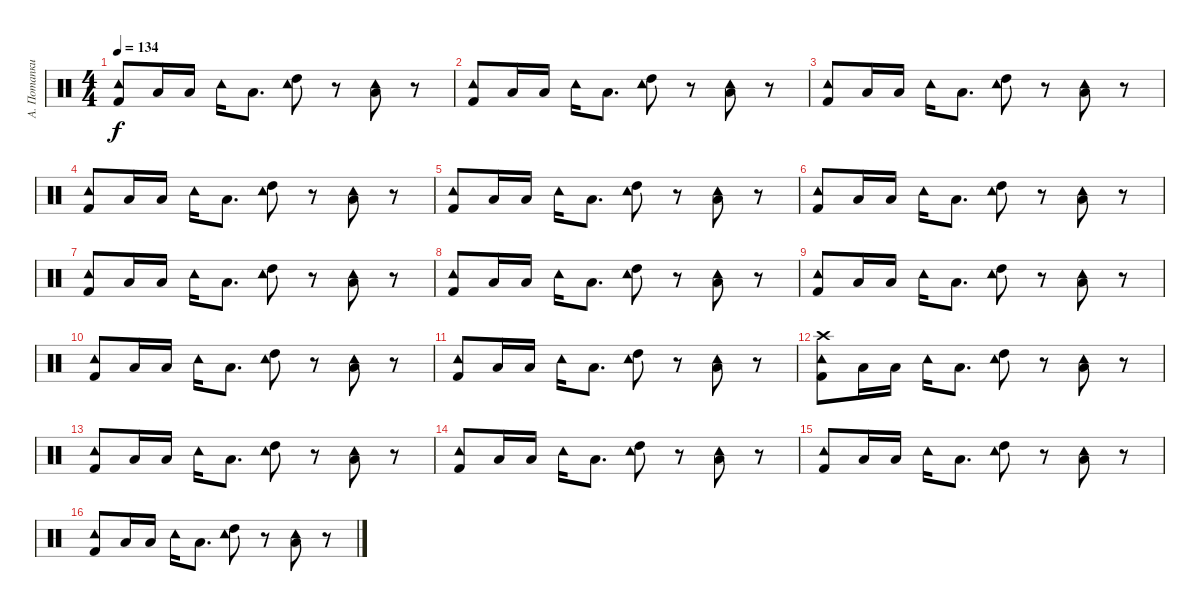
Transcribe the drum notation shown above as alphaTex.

\track ("А. Потапкин" "А. Потапки") {instrument percussion}
\staff {score}
\articulation defaults
\ts (4 4)
\tempo 134
\clef neutral
\ks c
("Tambourine (hit)" "Kick (hit) 2").8{dy f} "Low Tom (hit)".16 "Low Tom (hit)".16 "Tambourine (hit)".16 "Low Tom (hit)".8{d} ("Tambourine (hit)" "High Tom (hit)").8 r.8 ("Tambourine (hit)" "Low Tom (hit)").8 r.8 |
("Tambourine (hit)" "Kick (hit) 2").8 "Low Tom (hit)".16 "Low Tom (hit)".16 "Tambourine (hit)".16 "Low Tom (hit)".8{d} ("Tambourine (hit)" "High Tom (hit)").8 r.8 ("Tambourine (hit)" "Low Tom (hit)").8 r.8 |
("Tambourine (hit)" "Kick (hit) 2").8 "Low Tom (hit)".16 "Low Tom (hit)".16 "Tambourine (hit)".16 "Low Tom (hit)".8{d} ("Tambourine (hit)" "High Tom (hit)").8 r.8 ("Tambourine (hit)" "Low Tom (hit)").8 r.8 |
("Tambourine (hit)" "Kick (hit) 2").8 "Low Tom (hit)".16 "Low Tom (hit)".16 "Tambourine (hit)".16 "Low Tom (hit)".8{d} ("Tambourine (hit)" "High Tom (hit)").8 r.8 ("Tambourine (hit)" "Low Tom (hit)").8 r.8 |
("Tambourine (hit)" "Kick (hit) 2").8 "Low Tom (hit)".16 "Low Tom (hit)".16 "Tambourine (hit)".16 "Low Tom (hit)".8{d} ("Tambourine (hit)" "High Tom (hit)").8 r.8 ("Tambourine (hit)" "Low Tom (hit)").8 r.8 |
("Tambourine (hit)" "Kick (hit) 2").8 "Low Tom (hit)".16 "Low Tom (hit)".16 "Tambourine (hit)".16 "Low Tom (hit)".8{d} ("Tambourine (hit)" "High Tom (hit)").8 r.8 ("Tambourine (hit)" "Low Tom (hit)").8 r.8 |
("Tambourine (hit)" "Kick (hit) 2").8 "Low Tom (hit)".16 "Low Tom (hit)".16 "Tambourine (hit)".16 "Low Tom (hit)".8{d} ("Tambourine (hit)" "High Tom (hit)").8 r.8 ("Tambourine (hit)" "Low Tom (hit)").8 r.8 |
("Tambourine (hit)" "Kick (hit) 2").8 "Low Tom (hit)".16 "Low Tom (hit)".16 "Tambourine (hit)".16 "Low Tom (hit)".8{d} ("Tambourine (hit)" "High Tom (hit)").8 r.8 ("Tambourine (hit)" "Low Tom (hit)").8 r.8 |
("Tambourine (hit)" "Kick (hit) 2").8 "Low Tom (hit)".16 "Low Tom (hit)".16 "Tambourine (hit)".16 "Low Tom (hit)".8{d} ("Tambourine (hit)" "High Tom (hit)").8 r.8 ("Tambourine (hit)" "Low Tom (hit)").8 r.8 |
("Tambourine (hit)" "Kick (hit) 2").8 "Low Tom (hit)".16 "Low Tom (hit)".16 "Tambourine (hit)".16 "Low Tom (hit)".8{d} ("Tambourine (hit)" "High Tom (hit)").8 r.8 ("Tambourine (hit)" "Low Tom (hit)").8 r.8 |
("Tambourine (hit)" "Kick (hit) 2").8 "Low Tom (hit)".16 "Low Tom (hit)".16 "Tambourine (hit)".16 "Low Tom (hit)".8{d} ("Tambourine (hit)" "High Tom (hit)").8 r.8 ("Tambourine (hit)" "Low Tom (hit)").8 r.8 |
("Crash high (hit)" "Tambourine (hit)" "Kick (hit) 2").8 "Low Tom (hit)".16 "Low Tom (hit)".16 "Tambourine (hit)".16 "Low Tom (hit)".8{d} ("Tambourine (hit)" "High Tom (hit)").8 r.8 ("Tambourine (hit)" "Low Tom (hit)").8 r.8 |
("Tambourine (hit)" "Kick (hit) 2").8 "Low Tom (hit)".16 "Low Tom (hit)".16 "Tambourine (hit)".16 "Low Tom (hit)".8{d} ("Tambourine (hit)" "High Tom (hit)").8 r.8 ("Tambourine (hit)" "Low Tom (hit)").8 r.8 |
("Tambourine (hit)" "Kick (hit) 2").8 "Low Tom (hit)".16 "Low Tom (hit)".16 "Tambourine (hit)".16 "Low Tom (hit)".8{d} ("Tambourine (hit)" "High Tom (hit)").8 r.8 ("Tambourine (hit)" "Low Tom (hit)").8 r.8 |
("Tambourine (hit)" "Kick (hit) 2").8 "Low Tom (hit)".16 "Low Tom (hit)".16 "Tambourine (hit)".16 "Low Tom (hit)".8{d} ("Tambourine (hit)" "High Tom (hit)").8 r.8 ("Tambourine (hit)" "Low Tom (hit)").8 r.8 |
("Tambourine (hit)" "Kick (hit) 2").8 "Low Tom (hit)".16 "Low Tom (hit)".16 "Tambourine (hit)".16 "Low Tom (hit)".8{d} ("Tambourine (hit)" "High Tom (hit)").8 r.8 ("Tambourine (hit)" "Low Tom (hit)").8 r.8
